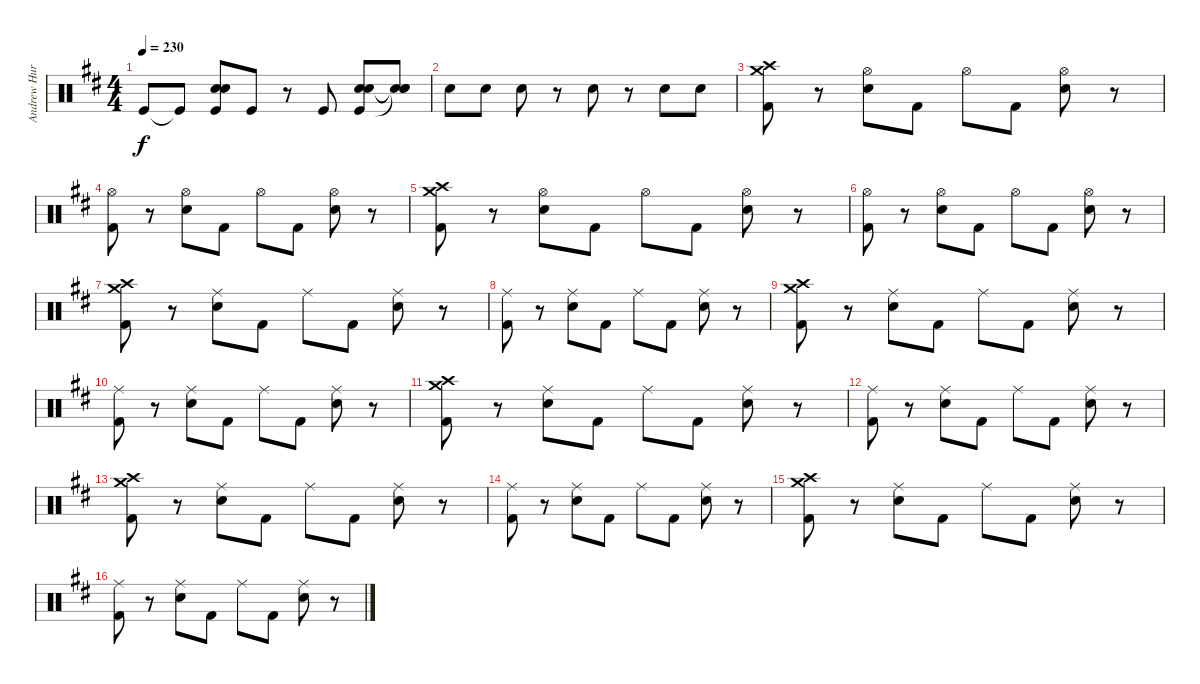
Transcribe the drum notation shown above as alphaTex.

\track ("Andrew Hurley" "Andrew Hur") {instrument percussion}
\staff {score}
\articulation defaults
\ts (4 4)
\tempo 230
\clef neutral
\ks d "Kick (hit)".8{dy f} "Kick (hit)"{t}.8
("Kick (hit)" "Snare (hit) 2" "Electric Snare (hit)").8 "Kick (hit)".8 r.8 "Kick (hit)".8 ("Electric Snare (hit)" "Snare (hit) 2" "Kick (hit)").8 ("Snare (hit)"{t} "Snare (hit)"{t} "Snare (hit)"{t}).8 |
"Electric Snare (hit)".8 "Electric Snare (hit)".8 "Electric Snare (hit)".8 r.8 "Electric Snare (hit)".8 r.8 "Electric Snare (hit)".8 "Electric Snare (hit)".8 |
("Crash high (hit)" "Crash medium (hit)" "Kick (hit) 2").8 r.8 ("Hi-Hat (open)" "Electric Snare (hit)").8 "Kick (hit) 2".8 "Hi-Hat (open)".8 "Kick (hit) 2".8 ("Hi-Hat (open)" "Electric Snare (hit)").8 r.8 |
("Hi-Hat (open)" "Kick (hit) 2").8 r.8 ("Hi-Hat (open)" "Electric Snare (hit)").8 "Kick (hit) 2".8 "Hi-Hat (open)".8 "Kick (hit) 2".8 ("Hi-Hat (open)" "Electric Snare (hit)").8 r.8 |
("Crash high (hit)" "Crash medium (hit)" "Kick (hit) 2").8 r.8 ("Hi-Hat (open)" "Electric Snare (hit)").8 "Kick (hit) 2".8 "Hi-Hat (open)".8 "Kick (hit) 2".8 ("Hi-Hat (open)" "Electric Snare (hit)").8 r.8 |
("Hi-Hat (open)" "Kick (hit) 2").8 r.8 ("Hi-Hat (open)" "Electric Snare (hit)").8 "Kick (hit) 2".8 "Hi-Hat (open)".8 "Kick (hit) 2".8 ("Hi-Hat (open)" "Electric Snare (hit)").8 r.8 |
("Crash high (hit)" "Crash medium (hit)" "Kick (hit) 2").8 r.8 ("Ride (middle)" "Electric Snare (hit)").8 "Kick (hit) 2".8 "Ride (middle)".8 "Kick (hit) 2".8 ("Ride (middle)" "Electric Snare (hit)").8 r.8 |
("Ride (middle)" "Kick (hit) 2").8 r.8 ("Ride (middle)" "Electric Snare (hit)").8 "Kick (hit) 2".8 "Ride (middle)".8 "Kick (hit) 2".8 ("Ride (middle)" "Electric Snare (hit)").8 r.8 |
("Crash high (hit)" "Crash medium (hit)" "Kick (hit) 2").8 r.8 ("Ride (middle)" "Electric Snare (hit)").8 "Kick (hit) 2".8 "Ride (middle)".8 "Kick (hit) 2".8 ("Ride (middle)" "Electric Snare (hit)").8 r.8 |
("Ride (middle)" "Kick (hit) 2").8 r.8 ("Ride (middle)" "Electric Snare (hit)").8 "Kick (hit) 2".8 "Ride (middle)".8 "Kick (hit) 2".8 ("Ride (middle)" "Electric Snare (hit)").8 r.8 |
("Crash high (hit)" "Crash medium (hit)" "Kick (hit) 2").8 r.8 ("Ride (middle)" "Electric Snare (hit)").8 "Kick (hit) 2".8 "Ride (middle)".8 "Kick (hit) 2".8 ("Ride (middle)" "Electric Snare (hit)").8 r.8 |
("Ride (middle)" "Kick (hit) 2").8 r.8 ("Ride (middle)" "Electric Snare (hit)").8 "Kick (hit) 2".8 "Ride (middle)".8 "Kick (hit) 2".8 ("Ride (middle)" "Electric Snare (hit)").8 r.8 |
("Crash high (hit)" "Crash medium (hit)" "Kick (hit) 2").8 r.8 ("Ride (middle)" "Electric Snare (hit)").8 "Kick (hit) 2".8 "Ride (middle)".8 "Kick (hit) 2".8 ("Ride (middle)" "Electric Snare (hit)").8 r.8 |
("Ride (middle)" "Kick (hit) 2").8 r.8 ("Ride (middle)" "Electric Snare (hit)").8 "Kick (hit) 2".8 "Ride (middle)".8 "Kick (hit) 2".8 ("Ride (middle)" "Electric Snare (hit)").8 r.8 |
("Crash high (hit)" "Crash medium (hit)" "Kick (hit) 2").8 r.8 ("Ride (middle)" "Electric Snare (hit)").8 "Kick (hit) 2".8 "Ride (middle)".8 "Kick (hit) 2".8 ("Ride (middle)" "Electric Snare (hit)").8 r.8 |
("Ride (middle)" "Kick (hit) 2").8 r.8 ("Ride (middle)" "Electric Snare (hit)").8 "Kick (hit) 2".8 "Ride (middle)".8 "Kick (hit) 2".8 ("Ride (middle)" "Electric Snare (hit)").8 r.8
